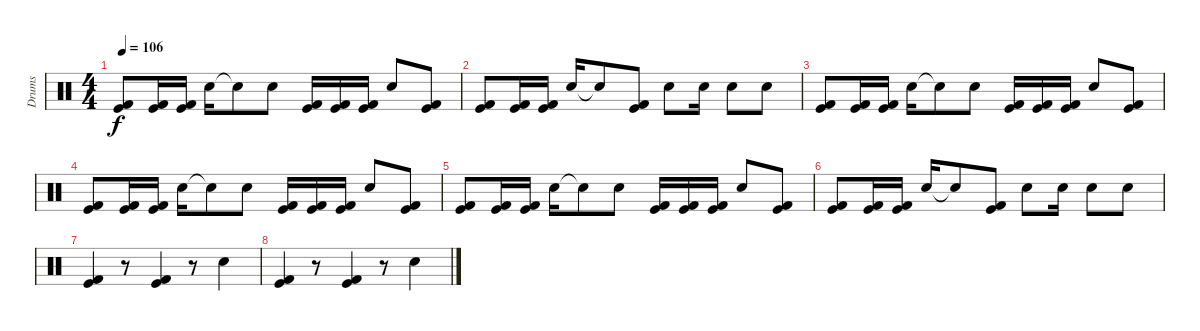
\track ("Drums" "Drums") {instrument percussion}
\staff {score}
\articulation defaults
\ts (4 4)
\tempo 106
\clef neutral
\ks c
("Kick (hit)" "Kick (hit) 2").8{dy f} ("Kick (hit)" "Kick (hit) 2").16 ("Kick (hit)" "Kick (hit) 2").16 "Electric Snare (hit)".16 "Snare (hit) 2"{t}.8 "Electric Snare (hit)".8 ("Kick (hit)" "Kick (hit) 2").16 ("Kick (hit)" "Kick (hit) 2").16 ("Kick (hit)" "Kick (hit) 2").16 "Electric Snare (hit)".8 ("Kick (hit)" "Kick (hit) 2").8 |
("Kick (hit)" "Kick (hit) 2").8 ("Kick (hit)" "Kick (hit) 2").16 ("Kick (hit)" "Kick (hit) 2").16 "Electric Snare (hit)".16 "Snare (hit) 2"{t}.8 ("Kick (hit)" "Kick (hit) 2").8 "Electric Snare (hit)".8 "Electric Snare (hit)".16 "Electric Snare (hit)".8 "Electric Snare (hit)".8 |
("Kick (hit)" "Kick (hit) 2").8 ("Kick (hit)" "Kick (hit) 2").16 ("Kick (hit)" "Kick (hit) 2").16 "Electric Snare (hit)".16 "Snare (hit) 2"{t}.8 "Electric Snare (hit)".8 ("Kick (hit)" "Kick (hit) 2").16 ("Kick (hit)" "Kick (hit) 2").16 ("Kick (hit)" "Kick (hit) 2").16 "Electric Snare (hit)".8 ("Kick (hit)" "Kick (hit) 2").8 |
("Kick (hit)" "Kick (hit) 2").8 ("Kick (hit)" "Kick (hit) 2").16 ("Kick (hit)" "Kick (hit) 2").16 "Electric Snare (hit)".16 "Snare (hit) 2"{t}.8 "Electric Snare (hit)".8 ("Kick (hit)" "Kick (hit) 2").16 ("Kick (hit)" "Kick (hit) 2").16 ("Kick (hit)" "Kick (hit) 2").16 "Electric Snare (hit)".8 ("Kick (hit)" "Kick (hit) 2").8 |
("Kick (hit)" "Kick (hit) 2").8 ("Kick (hit)" "Kick (hit) 2").16 ("Kick (hit)" "Kick (hit) 2").16 "Electric Snare (hit)".16 "Snare (hit) 2"{t}.8 "Electric Snare (hit)".8 ("Kick (hit)" "Kick (hit) 2").16 ("Kick (hit)" "Kick (hit) 2").16 ("Kick (hit)" "Kick (hit) 2").16 "Electric Snare (hit)".8 ("Kick (hit)" "Kick (hit) 2").8 |
("Kick (hit)" "Kick (hit) 2").8 ("Kick (hit)" "Kick (hit) 2").16 ("Kick (hit)" "Kick (hit) 2").16 "Electric Snare (hit)".16 "Snare (hit) 2"{t}.8 ("Kick (hit)" "Kick (hit) 2").8 "Electric Snare (hit)".8 "Electric Snare (hit)".16 "Electric Snare (hit)".8 "Electric Snare (hit)".8 |
("Kick (hit) 2" "Kick (hit)").4 r.8 ("Kick (hit) 2" "Kick (hit)").4 r.8 "Electric Snare (hit)".4 |
("Kick (hit) 2" "Kick (hit)").4 r.8 ("Kick (hit) 2" "Kick (hit)").4 r.8 "Electric Snare (hit)".4
